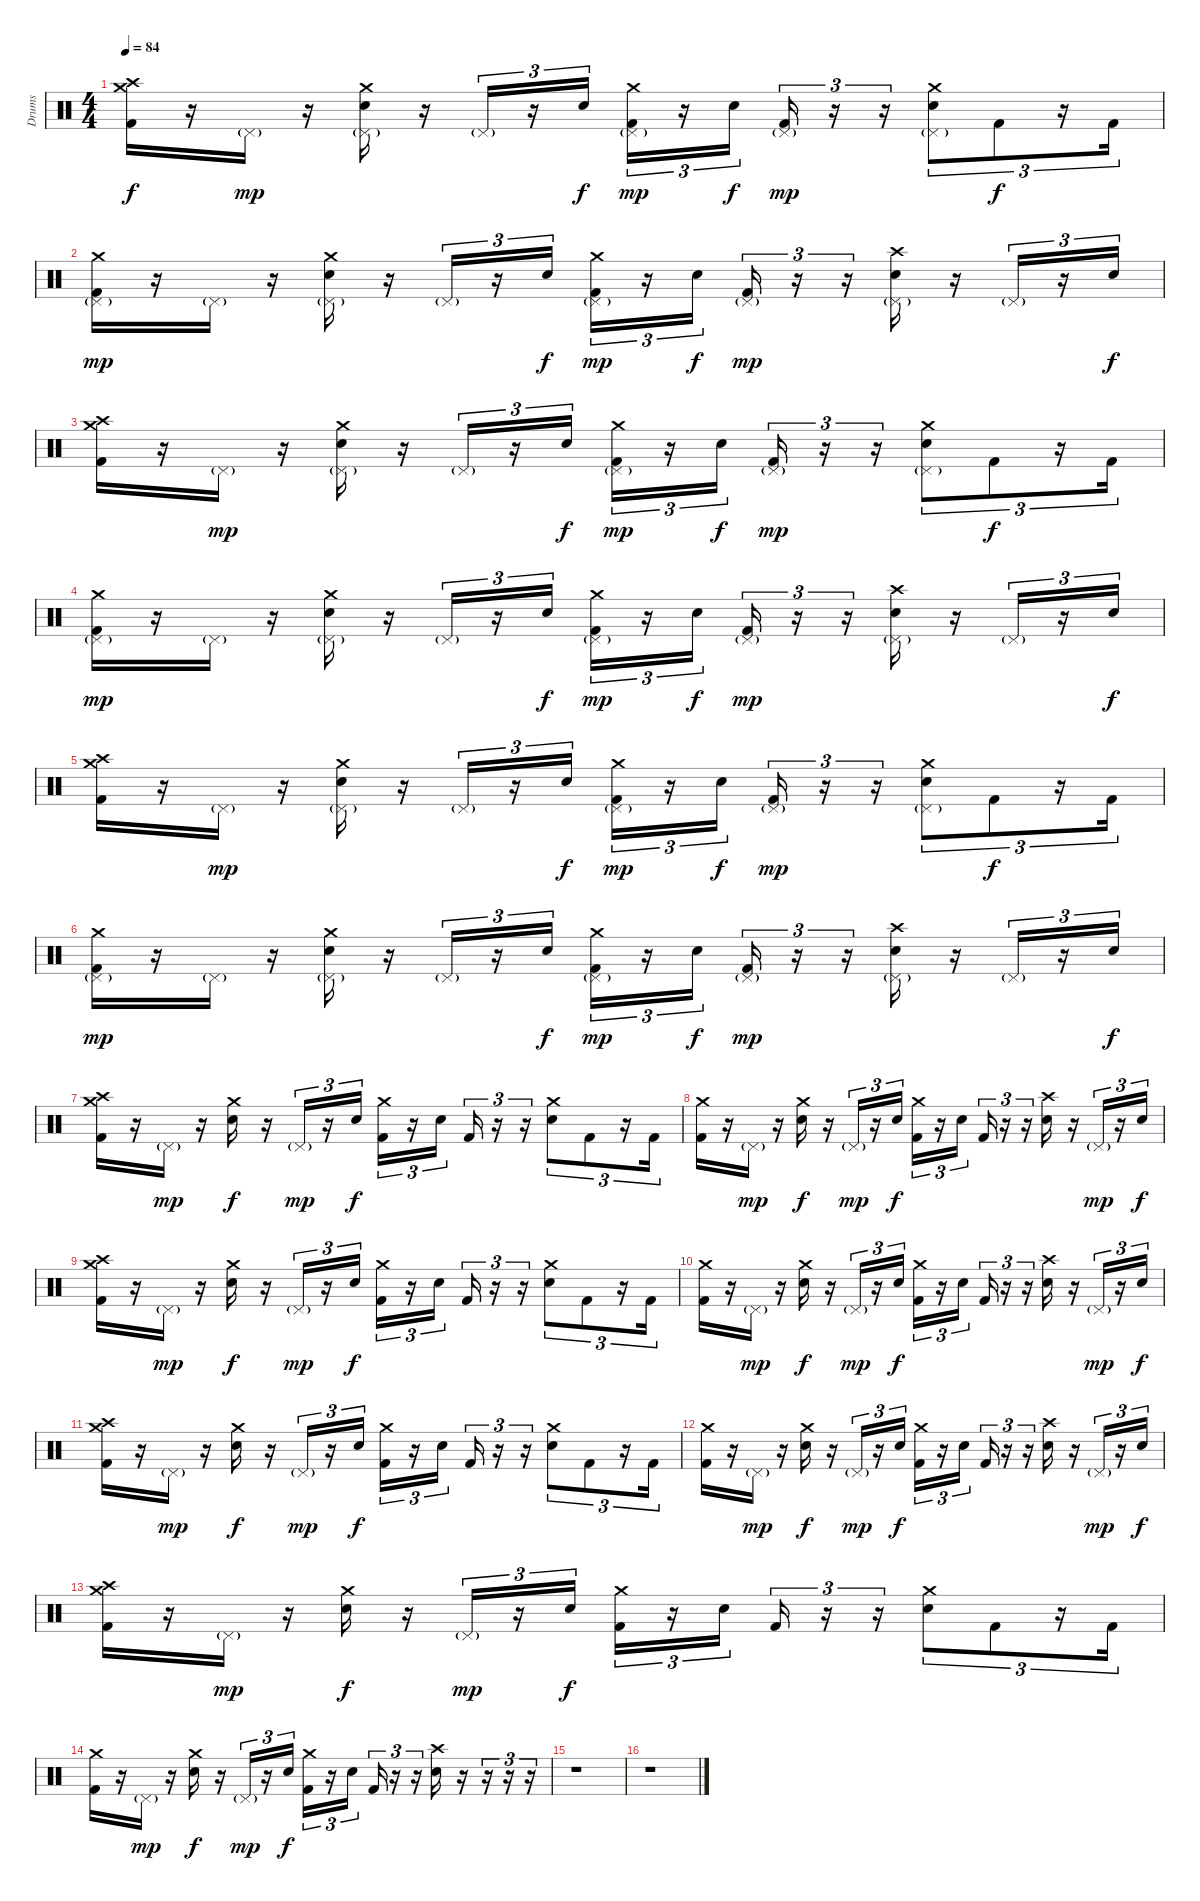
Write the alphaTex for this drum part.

\track ("Drums" "Drums") {instrument percussion}
\staff {score}
\articulation defaults
\ts (4 4)
\tempo 84
\clef neutral
\ks c
("Crash medium (hit)" "Crash high (hit)" "Kick (hit) 2").16{dy f} r.16 "Pedal Hi-Hat (hit)"{g}.16{dy mp} r.16 ("Pedal Hi-Hat (hit)"{g} "Crash medium (hit)" "Electric Snare (hit)").16 r.16 "Pedal Hi-Hat (hit)"{g}.16{tu (3 2)} r.16{tu (3 2)} "Electric Snare (hit)".16{tu (3 2) dy f} ("Pedal Hi-Hat (hit)"{g} "Crash medium (hit)" "Kick (hit) 2").16{tu (3 2) dy mp} r.16{tu (3 2)} "Electric Snare (hit)".16{tu (3 2) dy f} ("Pedal Hi-Hat (hit)"{g} "Kick (hit) 2").16{tu (3 2) dy mp} r.16{tu (3 2)} r.16{tu (3 2)} ("Pedal Hi-Hat (hit)"{g} "Crash medium (hit)" "Electric Snare (hit)").8{tu (3 2)} "Kick (hit) 2".8{tu (3 2) dy f} r.16{tu (3 2)} "Kick (hit) 2".16{tu (3 2)} |
("Pedal Hi-Hat (hit)"{g} "Crash medium (hit)" "Kick (hit) 2").16{dy mp} r.16 "Pedal Hi-Hat (hit)"{g}.16 r.16 ("Pedal Hi-Hat (hit)"{g} "Crash medium (hit)" "Electric Snare (hit)").16 r.16 "Pedal Hi-Hat (hit)"{g}.16{tu (3 2)} r.16{tu (3 2)} "Electric Snare (hit)".16{tu (3 2) dy f} ("Pedal Hi-Hat (hit)"{g} "Crash medium (hit)" "Kick (hit) 2").16{tu (3 2) dy mp} r.16{tu (3 2)} "Electric Snare (hit)".16{tu (3 2) dy f} ("Pedal Hi-Hat (hit)"{g} "Kick (hit) 2").16{tu (3 2) dy mp} r.16{tu (3 2)} r.16{tu (3 2)} ("Pedal Hi-Hat (hit)"{g} "Crash high (hit)" "Electric Snare (hit)").16 r.16 "Pedal Hi-Hat (hit)"{g}.16{tu (3 2)} r.16{tu (3 2)} "Electric Snare (hit)".16{tu (3 2) dy f} |
("Crash medium (hit)" "Crash high (hit)" "Kick (hit) 2").16 r.16 "Pedal Hi-Hat (hit)"{g}.16{dy mp} r.16 ("Pedal Hi-Hat (hit)"{g} "Crash medium (hit)" "Electric Snare (hit)").16 r.16 "Pedal Hi-Hat (hit)"{g}.16{tu (3 2)} r.16{tu (3 2)} "Electric Snare (hit)".16{tu (3 2) dy f} ("Pedal Hi-Hat (hit)"{g} "Crash medium (hit)" "Kick (hit) 2").16{tu (3 2) dy mp} r.16{tu (3 2)} "Electric Snare (hit)".16{tu (3 2) dy f} ("Pedal Hi-Hat (hit)"{g} "Kick (hit) 2").16{tu (3 2) dy mp} r.16{tu (3 2)} r.16{tu (3 2)} ("Pedal Hi-Hat (hit)"{g} "Crash medium (hit)" "Electric Snare (hit)").8{tu (3 2)} "Kick (hit) 2".8{tu (3 2) dy f} r.16{tu (3 2)} "Kick (hit) 2".16{tu (3 2)} |
("Pedal Hi-Hat (hit)"{g} "Crash medium (hit)" "Kick (hit) 2").16{dy mp} r.16 "Pedal Hi-Hat (hit)"{g}.16 r.16 ("Pedal Hi-Hat (hit)"{g} "Crash medium (hit)" "Electric Snare (hit)").16 r.16 "Pedal Hi-Hat (hit)"{g}.16{tu (3 2)} r.16{tu (3 2)} "Electric Snare (hit)".16{tu (3 2) dy f} ("Pedal Hi-Hat (hit)"{g} "Crash medium (hit)" "Kick (hit) 2").16{tu (3 2) dy mp} r.16{tu (3 2)} "Electric Snare (hit)".16{tu (3 2) dy f} ("Pedal Hi-Hat (hit)"{g} "Kick (hit) 2").16{tu (3 2) dy mp} r.16{tu (3 2)} r.16{tu (3 2)} ("Pedal Hi-Hat (hit)"{g} "Crash high (hit)" "Electric Snare (hit)").16 r.16 "Pedal Hi-Hat (hit)"{g}.16{tu (3 2)} r.16{tu (3 2)} "Electric Snare (hit)".16{tu (3 2) dy f} |
("Crash medium (hit)" "Crash high (hit)" "Kick (hit) 2").16 r.16 "Pedal Hi-Hat (hit)"{g}.16{dy mp} r.16 ("Pedal Hi-Hat (hit)"{g} "Crash medium (hit)" "Electric Snare (hit)").16 r.16 "Pedal Hi-Hat (hit)"{g}.16{tu (3 2)} r.16{tu (3 2)} "Electric Snare (hit)".16{tu (3 2) dy f} ("Pedal Hi-Hat (hit)"{g} "Crash medium (hit)" "Kick (hit) 2").16{tu (3 2) dy mp} r.16{tu (3 2)} "Electric Snare (hit)".16{tu (3 2) dy f} ("Pedal Hi-Hat (hit)"{g} "Kick (hit) 2").16{tu (3 2) dy mp} r.16{tu (3 2)} r.16{tu (3 2)} ("Pedal Hi-Hat (hit)"{g} "Crash medium (hit)" "Electric Snare (hit)").8{tu (3 2)} "Kick (hit) 2".8{tu (3 2) dy f} r.16{tu (3 2)} "Kick (hit) 2".16{tu (3 2)} |
("Pedal Hi-Hat (hit)"{g} "Crash medium (hit)" "Kick (hit) 2").16{dy mp} r.16 "Pedal Hi-Hat (hit)"{g}.16 r.16 ("Pedal Hi-Hat (hit)"{g} "Crash medium (hit)" "Electric Snare (hit)").16 r.16 "Pedal Hi-Hat (hit)"{g}.16{tu (3 2)} r.16{tu (3 2)} "Electric Snare (hit)".16{tu (3 2) dy f} ("Pedal Hi-Hat (hit)"{g} "Crash medium (hit)" "Kick (hit) 2").16{tu (3 2) dy mp} r.16{tu (3 2)} "Electric Snare (hit)".16{tu (3 2) dy f} ("Pedal Hi-Hat (hit)"{g} "Kick (hit) 2").16{tu (3 2) dy mp} r.16{tu (3 2)} r.16{tu (3 2)} ("Pedal Hi-Hat (hit)"{g} "Crash high (hit)" "Electric Snare (hit)").16 r.16 "Pedal Hi-Hat (hit)"{g}.16{tu (3 2)} r.16{tu (3 2)} "Electric Snare (hit)".16{tu (3 2) dy f} |
("Crash medium (hit)" "Crash high (hit)" "Kick (hit) 2").16 r.16 "Pedal Hi-Hat (hit)"{g}.16{dy mp} r.16 ("Crash medium (hit)" "Electric Snare (hit)").16{dy f} r.16 "Pedal Hi-Hat (hit)"{g}.16{tu (3 2) dy mp} r.16{tu (3 2)} "Electric Snare (hit)".16{tu (3 2) dy f} ("Crash medium (hit)" "Kick (hit) 2").16{tu (3 2)} r.16{tu (3 2)} "Electric Snare (hit)".16{tu (3 2)} "Kick (hit) 2".16{tu (3 2)} r.16{tu (3 2)} r.16{tu (3 2)} ("Crash medium (hit)" "Electric Snare (hit)").8{tu (3 2)} "Kick (hit) 2".8{tu (3 2)} r.16{tu (3 2)} "Kick (hit) 2".16{tu (3 2)} |
("Crash medium (hit)" "Kick (hit) 2").16 r.16 "Pedal Hi-Hat (hit)"{g}.16{dy mp} r.16 ("Crash medium (hit)" "Electric Snare (hit)").16{dy f} r.16 "Pedal Hi-Hat (hit)"{g}.16{tu (3 2) dy mp} r.16{tu (3 2)} "Electric Snare (hit)".16{tu (3 2) dy f} ("Crash medium (hit)" "Kick (hit) 2").16{tu (3 2)} r.16{tu (3 2)} "Electric Snare (hit)".16{tu (3 2)} "Kick (hit) 2".16{tu (3 2)} r.16{tu (3 2)} r.16{tu (3 2)} ("Crash high (hit)" "Electric Snare (hit)").16 r.16 "Pedal Hi-Hat (hit)"{g}.16{tu (3 2) dy mp} r.16{tu (3 2)} "Electric Snare (hit)".16{tu (3 2) dy f} |
("Crash medium (hit)" "Crash high (hit)" "Kick (hit) 2").16 r.16 "Pedal Hi-Hat (hit)"{g}.16{dy mp} r.16 ("Crash medium (hit)" "Electric Snare (hit)").16{dy f} r.16 "Pedal Hi-Hat (hit)"{g}.16{tu (3 2) dy mp} r.16{tu (3 2)} "Electric Snare (hit)".16{tu (3 2) dy f} ("Crash medium (hit)" "Kick (hit) 2").16{tu (3 2)} r.16{tu (3 2)} "Electric Snare (hit)".16{tu (3 2)} "Kick (hit) 2".16{tu (3 2)} r.16{tu (3 2)} r.16{tu (3 2)} ("Crash medium (hit)" "Electric Snare (hit)").8{tu (3 2)} "Kick (hit) 2".8{tu (3 2)} r.16{tu (3 2)} "Kick (hit) 2".16{tu (3 2)} |
("Crash medium (hit)" "Kick (hit) 2").16 r.16 "Pedal Hi-Hat (hit)"{g}.16{dy mp} r.16 ("Crash medium (hit)" "Electric Snare (hit)").16{dy f} r.16 "Pedal Hi-Hat (hit)"{g}.16{tu (3 2) dy mp} r.16{tu (3 2)} "Electric Snare (hit)".16{tu (3 2) dy f} ("Crash medium (hit)" "Kick (hit) 2").16{tu (3 2)} r.16{tu (3 2)} "Electric Snare (hit)".16{tu (3 2)} "Kick (hit) 2".16{tu (3 2)} r.16{tu (3 2)} r.16{tu (3 2)} ("Crash high (hit)" "Electric Snare (hit)").16 r.16 "Pedal Hi-Hat (hit)"{g}.16{tu (3 2) dy mp} r.16{tu (3 2)} "Electric Snare (hit)".16{tu (3 2) dy f} |
("Crash medium (hit)" "Crash high (hit)" "Kick (hit) 2").16 r.16 "Pedal Hi-Hat (hit)"{g}.16{dy mp} r.16 ("Crash medium (hit)" "Electric Snare (hit)").16{dy f} r.16 "Pedal Hi-Hat (hit)"{g}.16{tu (3 2) dy mp} r.16{tu (3 2)} "Electric Snare (hit)".16{tu (3 2) dy f} ("Crash medium (hit)" "Kick (hit) 2").16{tu (3 2)} r.16{tu (3 2)} "Electric Snare (hit)".16{tu (3 2)} "Kick (hit) 2".16{tu (3 2)} r.16{tu (3 2)} r.16{tu (3 2)} ("Crash medium (hit)" "Electric Snare (hit)").8{tu (3 2)} "Kick (hit) 2".8{tu (3 2)} r.16{tu (3 2)} "Kick (hit) 2".16{tu (3 2)} |
("Crash medium (hit)" "Kick (hit) 2").16 r.16 "Pedal Hi-Hat (hit)"{g}.16{dy mp} r.16 ("Crash medium (hit)" "Electric Snare (hit)").16{dy f} r.16 "Pedal Hi-Hat (hit)"{g}.16{tu (3 2) dy mp} r.16{tu (3 2)} "Electric Snare (hit)".16{tu (3 2) dy f} ("Crash medium (hit)" "Kick (hit) 2").16{tu (3 2)} r.16{tu (3 2)} "Electric Snare (hit)".16{tu (3 2)} "Kick (hit) 2".16{tu (3 2)} r.16{tu (3 2)} r.16{tu (3 2)} ("Crash high (hit)" "Electric Snare (hit)").16 r.16 "Pedal Hi-Hat (hit)"{g}.16{tu (3 2) dy mp} r.16{tu (3 2)} "Electric Snare (hit)".16{tu (3 2) dy f} |
("Crash medium (hit)" "Crash high (hit)" "Kick (hit) 2").16 r.16 "Pedal Hi-Hat (hit)"{g}.16{dy mp} r.16 ("Crash medium (hit)" "Electric Snare (hit)").16{dy f} r.16 "Pedal Hi-Hat (hit)"{g}.16{tu (3 2) dy mp} r.16{tu (3 2)} "Electric Snare (hit)".16{tu (3 2) dy f} ("Crash medium (hit)" "Kick (hit) 2").16{tu (3 2)} r.16{tu (3 2)} "Electric Snare (hit)".16{tu (3 2)} "Kick (hit) 2".16{tu (3 2)} r.16{tu (3 2)} r.16{tu (3 2)} ("Crash medium (hit)" "Electric Snare (hit)").8{tu (3 2)} "Kick (hit) 2".8{tu (3 2)} r.16{tu (3 2)} "Kick (hit) 2".16{tu (3 2)} |
("Crash medium (hit)" "Kick (hit) 2").16 r.16 "Pedal Hi-Hat (hit)"{g}.16{dy mp} r.16 ("Crash medium (hit)" "Electric Snare (hit)").16{dy f} r.16 "Pedal Hi-Hat (hit)"{g}.16{tu (3 2) dy mp} r.16{tu (3 2)} "Electric Snare (hit)".16{tu (3 2) dy f} ("Crash medium (hit)" "Kick (hit) 2").16{tu (3 2)} r.16{tu (3 2)} "Electric Snare (hit)".16{tu (3 2)} "Kick (hit) 2".16{tu (3 2)} r.16{tu (3 2)} r.16{tu (3 2)} ("Crash high (hit)" "Electric Snare (hit)").16 r.16 r.16{tu (3 2)} r.16{tu (3 2)} r.16{tu (3 2)} |
r.1 |
r.1
